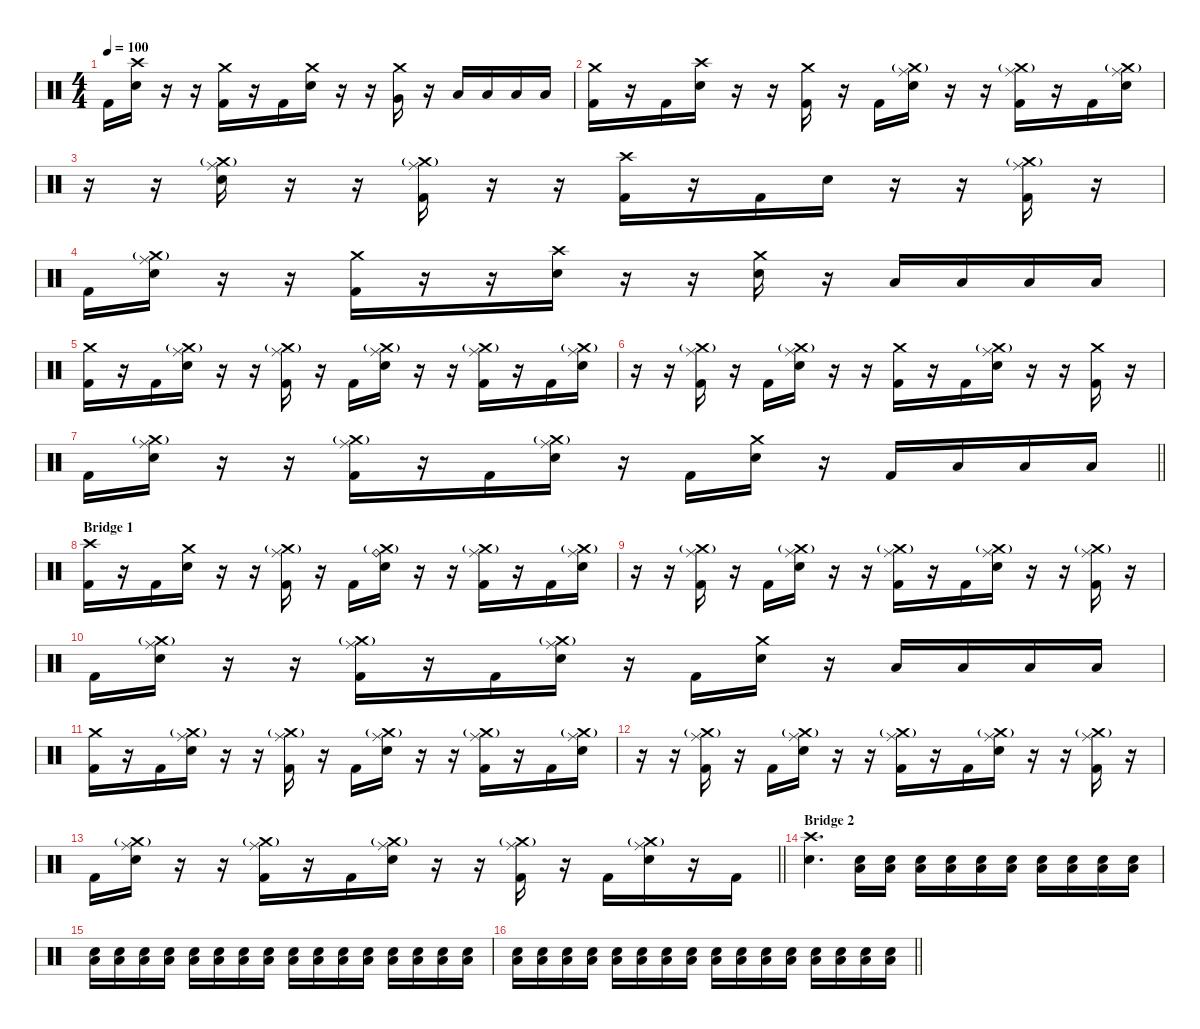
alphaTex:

\defaultSystemsLayout 4
\hideDynamics
\bracketExtendMode nobrackets
\singleTrackTrackNamePolicy hidden
\multiTrackTrackNamePolicy hidden
\firstSystemTrackNameMode fullname
\firstSystemTrackNameOrientation horizontal
\otherSystemsTrackNameOrientation horizontal
\track ("Bill Ward - Drums" "drm.") {instrument percussion}
\staff {score}
\articulation defaults
\ts (4 4)
\tempo 100
\clef neutral
\ks c "Kick (hit) 2".16{dy f}
("Crash high (hit)" "Snare (hit) 2").16 r.16 r.16 ("Crash medium (hit)" "Kick (hit) 2").16 r.16 "Kick (hit) 2".16 ("Crash medium (hit)" "Snare (hit) 2").16 r.16 r.16 ("Crash medium (hit)" "Very Low Tom (hit)").16 r.16 "Low Floor Tom (hit)".16 "Low Floor Tom (hit)".16 "Low Floor Tom (hit)".16 "Low Floor Tom (hit)".16 |
("Crash medium (hit)" "Kick (hit) 2").16 r.16 "Kick (hit) 2".16 ("Crash high (hit)" "Snare (hit) 2").16 r.16 r.16 ("Crash medium (hit)" "Kick (hit) 2").16 r.16 "Kick (hit) 2".16 ("Ride (middle)" "Crash medium (hit)"{g} "Snare (hit) 2").16 r.16 r.16 ("Ride (middle)" "Crash medium (hit)"{g} "Kick (hit) 2").16 r.16 "Kick (hit) 2".16 ("Ride (middle)" "Crash medium (hit)"{g} "Snare (hit) 2").16 |
r.16 r.16 ("Ride (middle)" "Crash medium (hit)"{g} "Snare (hit) 2").16 r.16 r.16 ("Ride (middle)" "Crash medium (hit)"{g} "Kick (hit) 2").16 r.16 r.16 ("Crash high (hit)" "Kick (hit) 2").16 r.16 "Kick (hit) 2".16 "Snare (hit) 2".16 r.16 r.16 ("Ride (middle)" "Crash medium (hit)"{g} "Kick (hit) 2").16 r.16 |
"Kick (hit) 2".16 ("Ride (middle)" "Crash medium (hit)"{g} "Snare (hit) 2").16 r.16 r.16 ("Crash medium (hit)" "Kick (hit) 2").16 r.16 r.16 ("Crash high (hit)" "Snare (hit) 2").16 r.16 r.16 ("Crash medium (hit)" "Snare (hit) 2").16 r.16 "Low Floor Tom (hit)".16 "Low Floor Tom (hit)".16 "Low Floor Tom (hit)".16 "Low Floor Tom (hit)".16 |
("Crash medium (hit)" "Kick (hit) 2").16 r.16 "Kick (hit) 2".16 ("Ride (middle)" "Crash medium (hit)"{g} "Snare (hit) 2").16 r.16 r.16 ("Ride (middle)" "Crash medium (hit)"{g} "Kick (hit) 2").16 r.16 "Kick (hit) 2".16 ("Ride (middle)" "Crash medium (hit)"{g} "Snare (hit) 2").16 r.16 r.16 ("Ride (middle)" "Crash medium (hit)"{g} "Kick (hit) 2").16 r.16 "Kick (hit) 2".16 ("Ride (middle)" "Crash medium (hit)"{g} "Snare (hit) 2").16 |
r.16 r.16 ("Ride (middle)" "Crash medium (hit)"{g} "Kick (hit) 2").16 r.16 "Kick (hit) 2".16 ("Ride (middle)" "Crash medium (hit)"{g} "Snare (hit) 2").16 r.16 r.16 ("Crash medium (hit)" "Kick (hit) 2").16 r.16 "Kick (hit) 2".16 ("Ride (middle)" "Crash medium (hit)"{g} "Snare (hit) 2").16 r.16 r.16 ("Crash medium (hit)" "Kick (hit) 2").16 r.16 |
\barLineRight lightlight "Kick (hit) 2".16
("Ride (middle)" "Crash medium (hit)"{g} "Snare (hit) 2").16 r.16 r.16 ("Ride (middle)" "Crash medium (hit)"{g} "Kick (hit) 2").16 r.16 "Kick (hit) 2".16 ("Ride (middle)" "Crash medium (hit)"{g} "Snare (hit) 2").16 r.16 "Kick (hit) 2".16 ("Crash medium (hit)" "Snare (hit) 2").16 r.16 "Kick (hit) 2".16 "Low Floor Tom (hit)".16 "Low Floor Tom (hit)".16 "Low Floor Tom (hit)".16 |
\section ("" "Bridge 1")
("Crash high (hit)" "Kick (hit) 2").16 r.16 "Kick (hit) 2".16 ("Crash medium (hit)" "Snare (hit) 2").16 r.16 r.16 ("Ride (middle)" "Crash medium (hit)"{g} "Kick (hit) 2").16 r.16 "Kick (hit) 2".16 ("Ride (bell)" "Crash medium (hit)"{g} "Snare (hit) 2").16 r.16 r.16 ("Ride (middle)" "Crash medium (hit)"{g} "Kick (hit) 2").16 r.16 "Kick (hit) 2".16 ("Ride (middle)" "Crash medium (hit)"{g} "Snare (hit) 2").16 |
r.16 r.16 ("Ride (middle)" "Crash medium (hit)"{g} "Kick (hit) 2").16 r.16 "Kick (hit) 2".16 ("Ride (middle)" "Crash medium (hit)"{g} "Snare (hit) 2").16 r.16 r.16 ("Ride (middle)" "Crash medium (hit)"{g} "Kick (hit) 2").16 r.16 "Kick (hit) 2".16 ("Ride (middle)" "Crash medium (hit)"{g} "Snare (hit) 2").16 r.16 r.16 ("Ride (middle)" "Crash medium (hit)"{g} "Kick (hit) 2").16 r.16 |
"Kick (hit) 2".16 ("Ride (middle)" "Crash medium (hit)"{g} "Snare (hit) 2").16 r.16 r.16 ("Ride (middle)" "Crash medium (hit)"{g} "Kick (hit) 2").16 r.16 "Kick (hit) 2".16 ("Ride (middle)" "Crash medium (hit)"{g} "Snare (hit) 2").16 r.16 "Kick (hit) 2".16 ("Crash medium (hit)" "Snare (hit) 2").16 r.16 "Low Floor Tom (hit)".16 "Low Floor Tom (hit)".16 "Low Floor Tom (hit)".16 "Low Floor Tom (hit)".16 |
("Crash medium (hit)" "Kick (hit) 2").16 r.16 "Kick (hit) 2".16 ("Ride (middle)" "Crash medium (hit)"{g} "Snare (hit) 2").16 r.16 r.16 ("Ride (middle)" "Crash medium (hit)"{g} "Kick (hit) 2").16 r.16 "Kick (hit) 2".16 ("Ride (middle)" "Crash medium (hit)"{g} "Snare (hit) 2").16 r.16 r.16 ("Ride (middle)" "Crash medium (hit)"{g} "Kick (hit) 2").16 r.16 "Kick (hit) 2".16 ("Ride (middle)" "Crash medium (hit)"{g} "Snare (hit) 2").16 |
r.16 r.16 ("Ride (middle)" "Crash medium (hit)"{g} "Kick (hit) 2").16 r.16 "Kick (hit) 2".16 ("Ride (middle)" "Crash medium (hit)"{g} "Snare (hit) 2").16 r.16 r.16 ("Ride (middle)" "Crash medium (hit)"{g} "Kick (hit) 2").16 r.16 "Kick (hit) 2".16 ("Ride (middle)" "Crash medium (hit)"{g} "Snare (hit) 2").16 r.16 r.16 ("Ride (middle)" "Crash medium (hit)"{g} "Kick (hit) 2").16 r.16 |
\barLineRight lightlight "Kick (hit) 2".16
("Ride (middle)" "Crash medium (hit)"{g} "Snare (hit) 2").16 r.16 r.16 ("Ride (middle)" "Crash medium (hit)"{g} "Kick (hit) 2").16 r.16 "Kick (hit) 2".16 ("Ride (middle)" "Crash medium (hit)"{g} "Snare (hit) 2").16 r.16 r.16 ("Ride (middle)" "Crash medium (hit)"{g} "Kick (hit) 2").16 r.16 "Kick (hit) 2".16 ("Ride (middle)" "Crash medium (hit)"{g} "Snare (hit) 2").16 r.16 "Kick (hit) 2".16 |
\section ("" "Bridge 2")
("Crash high (hit)" "Snare (hit) 2").4{d} ("Low Floor Tom (hit)" "Snare (hit) 2").16{dy pp} ("Low Floor Tom (hit)" "Snare (hit) 2").16 ("Low Floor Tom (hit)" "Snare (hit) 2").16{dy p} ("Low Floor Tom (hit)" "Snare (hit) 2").16 ("Low Floor Tom (hit)" "Snare (hit) 2").16 ("Low Floor Tom (hit)" "Snare (hit) 2").16 ("Low Floor Tom (hit)" "Snare (hit) 2").16 ("Low Floor Tom (hit)" "Snare (hit) 2").16 ("Low Floor Tom (hit)" "Snare (hit) 2").16 ("Low Floor Tom (hit)" "Snare (hit) 2").16 |
("Low Floor Tom (hit)" "Snare (hit) 2").16{dy mp} ("Low Floor Tom (hit)" "Snare (hit) 2").16 ("Low Floor Tom (hit)" "Snare (hit) 2").16 ("Low Floor Tom (hit)" "Snare (hit) 2").16 ("Low Floor Tom (hit)" "Snare (hit) 2").16 ("Low Floor Tom (hit)" "Snare (hit) 2").16 ("Low Floor Tom (hit)" "Snare (hit) 2").16 ("Low Floor Tom (hit)" "Snare (hit) 2").16 ("Low Floor Tom (hit)" "Snare (hit) 2").16{dy mf} ("Low Floor Tom (hit)" "Snare (hit) 2").16 ("Low Floor Tom (hit)" "Snare (hit) 2").16 ("Low Floor Tom (hit)" "Snare (hit) 2").16 ("Low Floor Tom (hit)" "Snare (hit) 2").16 ("Low Floor Tom (hit)" "Snare (hit) 2").16 ("Low Floor Tom (hit)" "Snare (hit) 2").16 ("Low Floor Tom (hit)" "Snare (hit) 2").16 |
\barLineRight lightlight
("Low Floor Tom (hit)" "Snare (hit) 2").16{dy f} ("Low Floor Tom (hit)" "Snare (hit) 2").16 ("Low Floor Tom (hit)" "Snare (hit) 2").16 ("Low Floor Tom (hit)" "Snare (hit) 2").16 ("Low Floor Tom (hit)" "Snare (hit) 2").16 ("Low Floor Tom (hit)" "Snare (hit) 2").16 ("Low Floor Tom (hit)" "Snare (hit) 2").16 ("Low Floor Tom (hit)" "Snare (hit) 2").16 ("Low Floor Tom (hit)" "Snare (hit) 2").16 ("Low Floor Tom (hit)" "Snare (hit) 2").16 ("Low Floor Tom (hit)" "Snare (hit) 2").16 ("Low Floor Tom (hit)" "Snare (hit) 2").16 ("Low Floor Tom (hit)" "Snare (hit) 2").16 ("Low Floor Tom (hit)" "Snare (hit) 2").16 ("Low Floor Tom (hit)" "Snare (hit) 2").16 ("Low Floor Tom (hit)" "Snare (hit) 2").16
